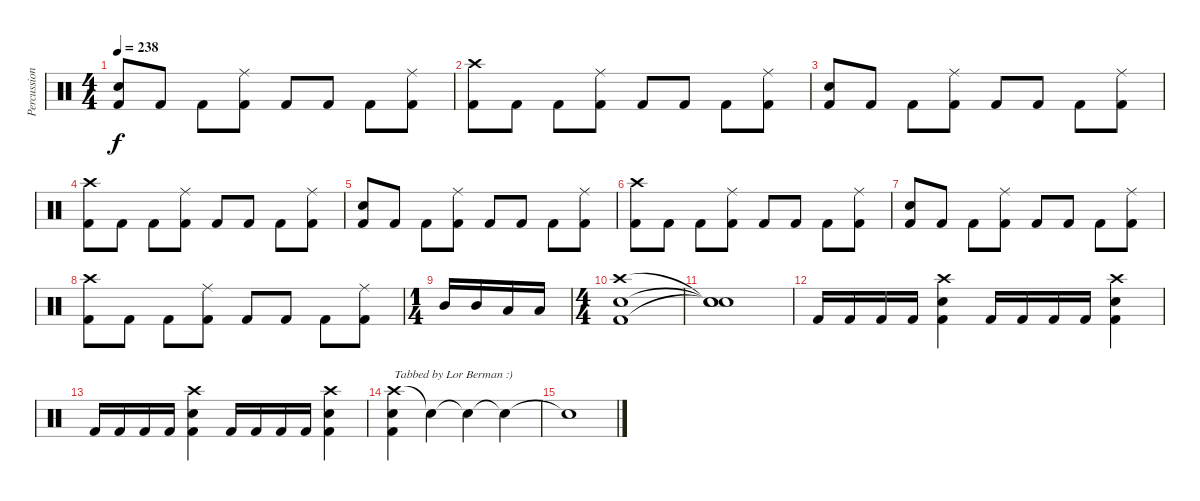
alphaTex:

\track ("Percussion" "Percussion") {instrument percussion}
\staff {score}
\articulation defaults
\ts (4 4)
\tempo 238
\clef neutral
\ks c
("Electric Snare (hit)" "Kick (hit) 2").8{dy f} "Kick (hit) 2".8 "Kick (hit) 2".8 ("Ride (middle)" "Kick (hit) 2").8 "Kick (hit) 2".8 "Kick (hit) 2".8 "Kick (hit) 2".8 ("Ride (middle)" "Kick (hit) 2").8 |
("Crash high (hit)" "Kick (hit) 2").8 "Kick (hit) 2".8 "Kick (hit) 2".8 ("Ride (middle)" "Kick (hit) 2").8 "Kick (hit) 2".8 "Kick (hit) 2".8 "Kick (hit) 2".8 ("Ride (middle)" "Kick (hit) 2").8 |
("Electric Snare (hit)" "Kick (hit) 2").8 "Kick (hit) 2".8 "Kick (hit) 2".8 ("Ride (middle)" "Kick (hit) 2").8 "Kick (hit) 2".8 "Kick (hit) 2".8 "Kick (hit) 2".8 ("Ride (middle)" "Kick (hit) 2").8 |
("Crash high (hit)" "Kick (hit) 2").8 "Kick (hit) 2".8 "Kick (hit) 2".8 ("Ride (middle)" "Kick (hit) 2").8 "Kick (hit) 2".8 "Kick (hit) 2".8 "Kick (hit) 2".8 ("Ride (middle)" "Kick (hit) 2").8 |
("Electric Snare (hit)" "Kick (hit) 2").8 "Kick (hit) 2".8 "Kick (hit) 2".8 ("Ride (middle)" "Kick (hit) 2").8 "Kick (hit) 2".8 "Kick (hit) 2".8 "Kick (hit) 2".8 ("Ride (middle)" "Kick (hit) 2").8 |
("Crash high (hit)" "Kick (hit) 2").8 "Kick (hit) 2".8 "Kick (hit) 2".8 ("Ride (middle)" "Kick (hit) 2").8 "Kick (hit) 2".8 "Kick (hit) 2".8 "Kick (hit) 2".8 ("Ride (middle)" "Kick (hit) 2").8 |
("Electric Snare (hit)" "Kick (hit) 2").8 "Kick (hit) 2".8 "Kick (hit) 2".8 ("Ride (middle)" "Kick (hit) 2").8 "Kick (hit) 2".8 "Kick (hit) 2".8 "Kick (hit) 2".8 ("Ride (middle)" "Kick (hit) 2").8 |
("Crash high (hit)" "Kick (hit) 2").8 "Kick (hit) 2".8 "Kick (hit) 2".8 ("Ride (middle)" "Kick (hit) 2").8 "Kick (hit) 2".8 "Kick (hit) 2".8 "Kick (hit) 2".8 ("Ride (middle)" "Kick (hit) 2").8 |
\ts (1 4)
"Mid Tom (hit)".16 "Mid Tom (hit)".16 "Low Tom (hit)".16 "Low Tom (hit)".16 |
\ts (4 4)
("Crash high (hit)" "Electric Snare (hit)" "Kick (hit) 2").1 |
("Snare (hit)"{t} "Snare (hit)"{t} "Snare (hit)"{t}).1 |
"Kick (hit) 2".16 "Kick (hit) 2".16 "Kick (hit) 2".16 "Kick (hit) 2".16 ("Crash high (hit)" "Electric Snare (hit)" "Kick (hit) 2").4 "Kick (hit) 2".16 "Kick (hit) 2".16 "Kick (hit) 2".16 "Kick (hit) 2".16 ("Crash high (hit)" "Electric Snare (hit)" "Kick (hit) 2").4 |
"Kick (hit) 2".16 "Kick (hit) 2".16 "Kick (hit) 2".16 "Kick (hit) 2".16 ("Crash high (hit)" "Electric Snare (hit)" "Kick (hit) 2").4 "Kick (hit) 2".16 "Kick (hit) 2".16 "Kick (hit) 2".16 "Kick (hit) 2".16 ("Crash high (hit)" "Electric Snare (hit)" "Kick (hit) 2").4 |
("Crash high (hit)" "Electric Snare (hit)" "Kick (hit) 2").4{txt "Tabbed by Lor Berman :)"} "Snare (hit)"{t}.4 "Snare (hit)"{t}.4 "Snare (hit)"{t}.4 |
"Snare (hit)"{t}.1
